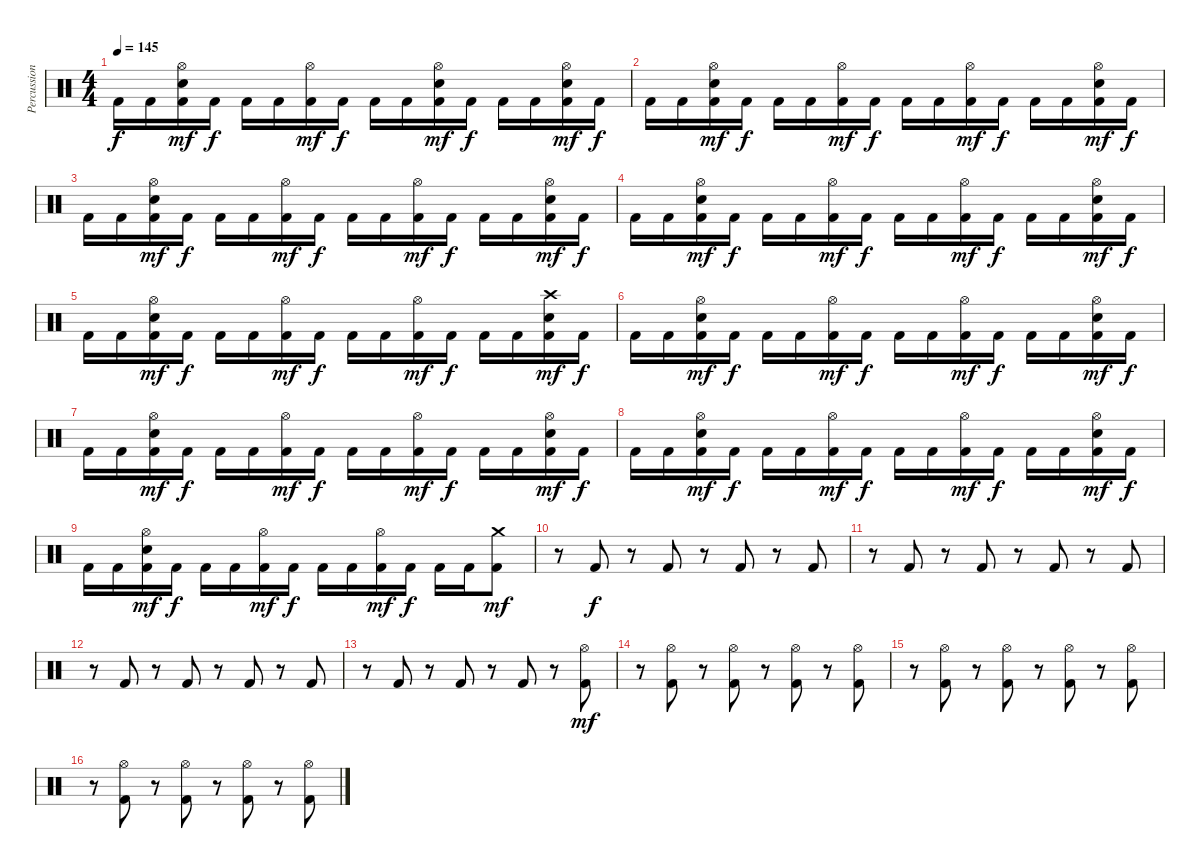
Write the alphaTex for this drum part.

\track ("Percussioni" "Percussion") {instrument percussion}
\staff {score}
\articulation defaults
\ts (4 4)
\tempo 145
\clef neutral
\ks c "Kick (hit) 2".16{dy f} "Kick (hit) 2".16
("Kick (hit) 2" "Snare (hit) 2" "Hi-Hat (open)").16{dy mf} "Kick (hit) 2".16{dy f} "Kick (hit) 2".16 "Kick (hit) 2".16 ("Kick (hit) 2" "Hi-Hat (open)").16{dy mf} "Kick (hit) 2".16{dy f} "Kick (hit) 2".16 "Kick (hit) 2".16 ("Kick (hit) 2" "Snare (hit) 2" "Hi-Hat (open)").16{dy mf} "Kick (hit) 2".16{dy f} "Kick (hit) 2".16 "Kick (hit) 2".16 ("Kick (hit) 2" "Snare (hit) 2" "Hi-Hat (open)").16{dy mf} "Kick (hit) 2".16{dy f} |
"Kick (hit) 2".16 "Kick (hit) 2".16 ("Kick (hit) 2" "Snare (hit) 2" "Hi-Hat (open)").16{dy mf} "Kick (hit) 2".16{dy f} "Kick (hit) 2".16 "Kick (hit) 2".16 ("Kick (hit) 2" "Hi-Hat (open)").16{dy mf} "Kick (hit) 2".16{dy f} "Kick (hit) 2".16 "Kick (hit) 2".16 ("Kick (hit) 2" "Hi-Hat (open)").16{dy mf} "Kick (hit) 2".16{dy f} "Kick (hit) 2".16 "Kick (hit) 2".16 ("Kick (hit) 2" "Snare (hit) 2" "Hi-Hat (open)").16{dy mf} "Kick (hit) 2".16{dy f} |
"Kick (hit) 2".16 "Kick (hit) 2".16 ("Kick (hit) 2" "Snare (hit) 2" "Hi-Hat (open)").16{dy mf} "Kick (hit) 2".16{dy f} "Kick (hit) 2".16 "Kick (hit) 2".16 ("Kick (hit) 2" "Hi-Hat (open)").16{dy mf} "Kick (hit) 2".16{dy f} "Kick (hit) 2".16 "Kick (hit) 2".16 ("Kick (hit) 2" "Hi-Hat (open)").16{dy mf} "Kick (hit) 2".16{dy f} "Kick (hit) 2".16 "Kick (hit) 2".16 ("Kick (hit) 2" "Snare (hit) 2" "Hi-Hat (open)").16{dy mf} "Kick (hit) 2".16{dy f} |
"Kick (hit) 2".16 "Kick (hit) 2".16 ("Kick (hit) 2" "Snare (hit) 2" "Hi-Hat (open)").16{dy mf} "Kick (hit) 2".16{dy f} "Kick (hit) 2".16 "Kick (hit) 2".16 ("Kick (hit) 2" "Hi-Hat (open)").16{dy mf} "Kick (hit) 2".16{dy f} "Kick (hit) 2".16 "Kick (hit) 2".16 ("Kick (hit) 2" "Hi-Hat (open)").16{dy mf} "Kick (hit) 2".16{dy f} "Kick (hit) 2".16 "Kick (hit) 2".16 ("Kick (hit) 2" "Snare (hit) 2" "Hi-Hat (open)").16{dy mf} "Kick (hit) 2".16{dy f} |
"Kick (hit) 2".16 "Kick (hit) 2".16 ("Kick (hit) 2" "Snare (hit) 2" "Hi-Hat (open)").16{dy mf} "Kick (hit) 2".16{dy f} "Kick (hit) 2".16 "Kick (hit) 2".16 ("Kick (hit) 2" "Hi-Hat (open)").16{dy mf} "Kick (hit) 2".16{dy f} "Kick (hit) 2".16 "Kick (hit) 2".16 ("Kick (hit) 2" "Hi-Hat (open)").16{dy mf} "Kick (hit) 2".16{dy f} "Kick (hit) 2".16 "Kick (hit) 2".16 ("Kick (hit) 2" "Snare (hit) 2" "Crash high (hit)").16{dy mf} "Kick (hit) 2".16{dy f} |
"Kick (hit) 2".16 "Kick (hit) 2".16 ("Kick (hit) 2" "Snare (hit) 2" "Hi-Hat (open)").16{dy mf} "Kick (hit) 2".16{dy f} "Kick (hit) 2".16 "Kick (hit) 2".16 ("Kick (hit) 2" "Hi-Hat (open)").16{dy mf} "Kick (hit) 2".16{dy f} "Kick (hit) 2".16 "Kick (hit) 2".16 ("Kick (hit) 2" "Hi-Hat (open)").16{dy mf} "Kick (hit) 2".16{dy f} "Kick (hit) 2".16 "Kick (hit) 2".16 ("Kick (hit) 2" "Snare (hit) 2" "Hi-Hat (open)").16{dy mf} "Kick (hit) 2".16{dy f} |
"Kick (hit) 2".16 "Kick (hit) 2".16 ("Kick (hit) 2" "Snare (hit) 2" "Hi-Hat (open)").16{dy mf} "Kick (hit) 2".16{dy f} "Kick (hit) 2".16 "Kick (hit) 2".16 ("Kick (hit) 2" "Hi-Hat (open)").16{dy mf} "Kick (hit) 2".16{dy f} "Kick (hit) 2".16 "Kick (hit) 2".16 ("Kick (hit) 2" "Hi-Hat (open)").16{dy mf} "Kick (hit) 2".16{dy f} "Kick (hit) 2".16 "Kick (hit) 2".16 ("Kick (hit) 2" "Snare (hit) 2" "Hi-Hat (open)").16{dy mf} "Kick (hit) 2".16{dy f} |
"Kick (hit) 2".16 "Kick (hit) 2".16 ("Kick (hit) 2" "Snare (hit) 2" "Hi-Hat (open)").16{dy mf} "Kick (hit) 2".16{dy f} "Kick (hit) 2".16 "Kick (hit) 2".16 ("Kick (hit) 2" "Hi-Hat (open)").16{dy mf} "Kick (hit) 2".16{dy f} "Kick (hit) 2".16 "Kick (hit) 2".16 ("Kick (hit) 2" "Hi-Hat (open)").16{dy mf} "Kick (hit) 2".16{dy f} "Kick (hit) 2".16 "Kick (hit) 2".16 ("Kick (hit) 2" "Snare (hit) 2" "Hi-Hat (open)").16{dy mf} "Kick (hit) 2".16{dy f} |
"Kick (hit) 2".16 "Kick (hit) 2".16 ("Kick (hit) 2" "Snare (hit) 2" "Hi-Hat (open)").16{dy mf} "Kick (hit) 2".16{dy f} "Kick (hit) 2".16 "Kick (hit) 2".16 ("Kick (hit) 2" "Hi-Hat (open)").16{dy mf} "Kick (hit) 2".16{dy f} "Kick (hit) 2".16 "Kick (hit) 2".16 ("Kick (hit) 2" "Hi-Hat (open)").16{dy mf} "Kick (hit) 2".16{dy f} "Kick (hit) 2".16 "Kick (hit) 2".16 ("Kick (hit) 2" "Crash medium (hit)").8{dy mf} |
r.8 "Kick (hit) 2".8{dy f} r.8 "Kick (hit) 2".8 r.8 "Kick (hit) 2".8 r.8 "Kick (hit) 2".8 |
r.8 "Kick (hit) 2".8 r.8 "Kick (hit) 2".8 r.8 "Kick (hit) 2".8 r.8 "Kick (hit) 2".8 |
r.8 "Kick (hit) 2".8 r.8 "Kick (hit) 2".8 r.8 "Kick (hit) 2".8 r.8 "Kick (hit) 2".8 |
r.8 "Kick (hit) 2".8 r.8 "Kick (hit) 2".8 r.8 "Kick (hit) 2".8 r.8 ("Kick (hit) 2" "Hi-Hat (open)").8{dy mf} |
r.8 ("Kick (hit) 2" "Hi-Hat (open)").8 r.8 ("Kick (hit) 2" "Hi-Hat (open)").8 r.8 ("Kick (hit) 2" "Hi-Hat (open)").8 r.8 ("Kick (hit) 2" "Hi-Hat (open)").8 |
r.8 ("Kick (hit) 2" "Hi-Hat (open)").8 r.8 ("Kick (hit) 2" "Hi-Hat (open)").8 r.8 ("Kick (hit) 2" "Hi-Hat (open)").8 r.8 ("Kick (hit) 2" "Hi-Hat (open)").8 |
r.8 ("Kick (hit) 2" "Hi-Hat (open)").8 r.8 ("Kick (hit) 2" "Hi-Hat (open)").8 r.8 ("Kick (hit) 2" "Hi-Hat (open)").8 r.8 ("Kick (hit) 2" "Hi-Hat (open)").8
